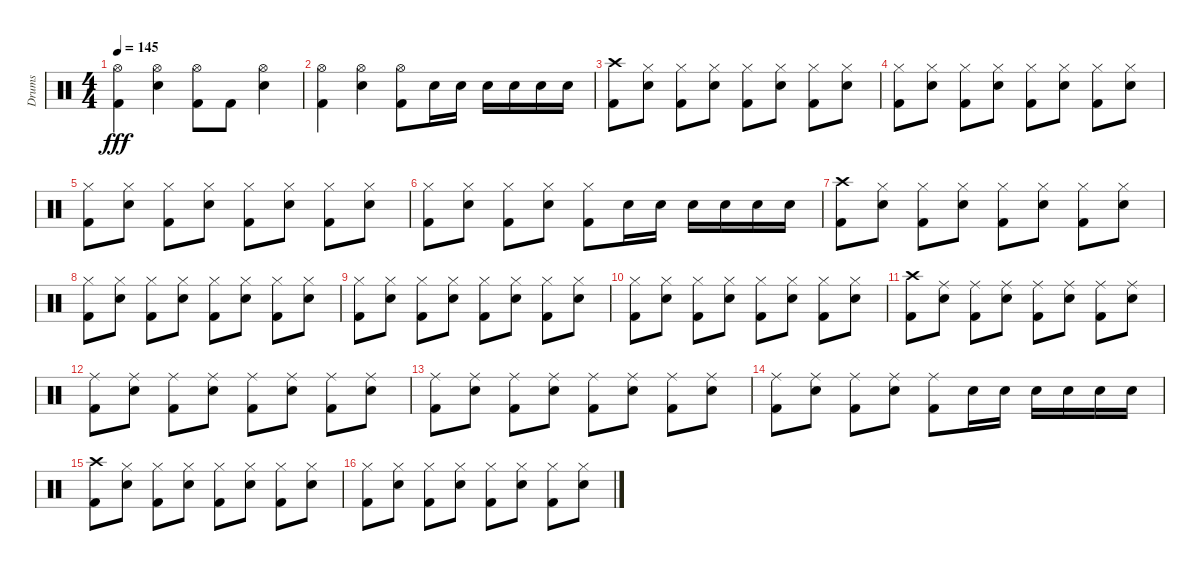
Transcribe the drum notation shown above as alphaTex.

\track ("Drums" "Drums") {instrument percussion}
\staff {score}
\articulation defaults
\ts (4 4)
\tempo 145
\clef neutral
\ks c
("Hi-Hat (open)" "Kick (hit) 2").4{dy fff} ("Hi-Hat (open)" "Electric Snare (hit)").4 ("Hi-Hat (open)" "Kick (hit) 2").8 "Kick (hit) 2".8 ("Hi-Hat (open)" "Electric Snare (hit)").4 |
("Hi-Hat (open)" "Kick (hit) 2").4 ("Hi-Hat (open)" "Electric Snare (hit)").4 ("Hi-Hat (open)" "Kick (hit) 2").8 "Electric Snare (hit)".16 "Electric Snare (hit)".16 "Electric Snare (hit)".16 "Electric Snare (hit)".16 "Electric Snare (hit)".16 "Electric Snare (hit)".16 |
("Crash high (hit)" "Kick (hit) 2").8 ("Hi-Hat (closed)" "Electric Snare (hit)").8 ("Hi-Hat (closed)" "Kick (hit) 2").8 ("Hi-Hat (closed)" "Electric Snare (hit)").8 ("Hi-Hat (closed)" "Kick (hit) 2").8 ("Hi-Hat (closed)" "Electric Snare (hit)").8 ("Hi-Hat (closed)" "Kick (hit) 2").8 ("Hi-Hat (closed)" "Electric Snare (hit)").8 |
("Hi-Hat (closed)" "Kick (hit) 2").8 ("Hi-Hat (closed)" "Electric Snare (hit)").8 ("Hi-Hat (closed)" "Kick (hit) 2").8 ("Hi-Hat (closed)" "Electric Snare (hit)").8 ("Hi-Hat (closed)" "Kick (hit) 2").8 ("Hi-Hat (closed)" "Electric Snare (hit)").8 ("Hi-Hat (closed)" "Kick (hit) 2").8 ("Hi-Hat (closed)" "Electric Snare (hit)").8 |
("Hi-Hat (closed)" "Kick (hit) 2").8 ("Hi-Hat (closed)" "Electric Snare (hit)").8 ("Hi-Hat (closed)" "Kick (hit) 2").8 ("Hi-Hat (closed)" "Electric Snare (hit)").8 ("Hi-Hat (closed)" "Kick (hit) 2").8 ("Hi-Hat (closed)" "Electric Snare (hit)").8 ("Hi-Hat (closed)" "Kick (hit) 2").8 ("Hi-Hat (closed)" "Electric Snare (hit)").8 |
("Hi-Hat (closed)" "Kick (hit) 2").8 ("Hi-Hat (closed)" "Electric Snare (hit)").8 ("Hi-Hat (closed)" "Kick (hit) 2").8 ("Hi-Hat (closed)" "Electric Snare (hit)").8 ("Hi-Hat (closed)" "Kick (hit) 2").8 "Electric Snare (hit)".16 "Electric Snare (hit)".16 "Electric Snare (hit)".16 "Electric Snare (hit)".16 "Electric Snare (hit)".16 "Electric Snare (hit)".16 |
("Crash high (hit)" "Kick (hit) 2").8 ("Hi-Hat (closed)" "Electric Snare (hit)").8 ("Hi-Hat (closed)" "Kick (hit) 2").8 ("Hi-Hat (closed)" "Electric Snare (hit)").8 ("Hi-Hat (closed)" "Kick (hit) 2").8 ("Hi-Hat (closed)" "Electric Snare (hit)").8 ("Hi-Hat (closed)" "Kick (hit) 2").8 ("Hi-Hat (closed)" "Electric Snare (hit)").8 |
("Hi-Hat (closed)" "Kick (hit) 2").8 ("Hi-Hat (closed)" "Electric Snare (hit)").8 ("Hi-Hat (closed)" "Kick (hit) 2").8 ("Hi-Hat (closed)" "Electric Snare (hit)").8 ("Hi-Hat (closed)" "Kick (hit) 2").8 ("Hi-Hat (closed)" "Electric Snare (hit)").8 ("Hi-Hat (closed)" "Kick (hit) 2").8 ("Hi-Hat (closed)" "Electric Snare (hit)").8 |
("Hi-Hat (closed)" "Kick (hit) 2").8 ("Hi-Hat (closed)" "Electric Snare (hit)").8 ("Hi-Hat (closed)" "Kick (hit) 2").8 ("Hi-Hat (closed)" "Electric Snare (hit)").8 ("Hi-Hat (closed)" "Kick (hit) 2").8 ("Hi-Hat (closed)" "Electric Snare (hit)").8 ("Hi-Hat (closed)" "Kick (hit) 2").8 ("Hi-Hat (closed)" "Electric Snare (hit)").8 |
("Hi-Hat (closed)" "Kick (hit) 2").8 ("Hi-Hat (closed)" "Electric Snare (hit)").8 ("Hi-Hat (closed)" "Kick (hit) 2").8 ("Hi-Hat (closed)" "Electric Snare (hit)").8 ("Hi-Hat (closed)" "Kick (hit) 2").8 ("Hi-Hat (closed)" "Electric Snare (hit)").8 ("Hi-Hat (closed)" "Kick (hit) 2").8 ("Hi-Hat (closed)" "Electric Snare (hit)").8 |
("Crash high (hit)" "Kick (hit) 2").8 ("Ride (middle)" "Electric Snare (hit)").8 ("Ride (middle)" "Kick (hit) 2").8 ("Ride (middle)" "Electric Snare (hit)").8 ("Ride (middle)" "Kick (hit) 2").8 ("Ride (middle)" "Electric Snare (hit)").8 ("Ride (middle)" "Kick (hit) 2").8 ("Ride (middle)" "Electric Snare (hit)").8 |
("Ride (middle)" "Kick (hit) 2").8 ("Ride (middle)" "Electric Snare (hit)").8 ("Ride (middle)" "Kick (hit) 2").8 ("Ride (middle)" "Electric Snare (hit)").8 ("Ride (middle)" "Kick (hit) 2").8 ("Ride (middle)" "Electric Snare (hit)").8 ("Ride (middle)" "Kick (hit) 2").8 ("Ride (middle)" "Electric Snare (hit)").8 |
("Ride (middle)" "Kick (hit) 2").8 ("Ride (middle)" "Electric Snare (hit)").8 ("Ride (middle)" "Kick (hit) 2").8 ("Ride (middle)" "Electric Snare (hit)").8 ("Ride (middle)" "Kick (hit) 2").8 ("Ride (middle)" "Electric Snare (hit)").8 ("Ride (middle)" "Kick (hit) 2").8 ("Ride (middle)" "Electric Snare (hit)").8 |
("Ride (middle)" "Kick (hit) 2").8 ("Ride (middle)" "Electric Snare (hit)").8 ("Ride (middle)" "Kick (hit) 2").8 ("Ride (middle)" "Electric Snare (hit)").8 ("Ride (middle)" "Kick (hit) 2").8 "Electric Snare (hit)".16 "Electric Snare (hit)".16 "Electric Snare (hit)".16 "Electric Snare (hit)".16 "Electric Snare (hit)".16 "Electric Snare (hit)".16 |
("Crash high (hit)" "Kick (hit) 2").8 ("Hi-Hat (closed)" "Electric Snare (hit)").8 ("Hi-Hat (closed)" "Kick (hit) 2").8 ("Hi-Hat (closed)" "Electric Snare (hit)").8 ("Hi-Hat (closed)" "Kick (hit) 2").8 ("Hi-Hat (closed)" "Electric Snare (hit)").8 ("Hi-Hat (closed)" "Kick (hit) 2").8 ("Hi-Hat (closed)" "Electric Snare (hit)").8 |
("Hi-Hat (closed)" "Kick (hit) 2").8 ("Hi-Hat (closed)" "Electric Snare (hit)").8 ("Hi-Hat (closed)" "Kick (hit) 2").8 ("Hi-Hat (closed)" "Electric Snare (hit)").8 ("Hi-Hat (closed)" "Kick (hit) 2").8 ("Hi-Hat (closed)" "Electric Snare (hit)").8 ("Hi-Hat (closed)" "Kick (hit) 2").8 ("Hi-Hat (closed)" "Electric Snare (hit)").8
